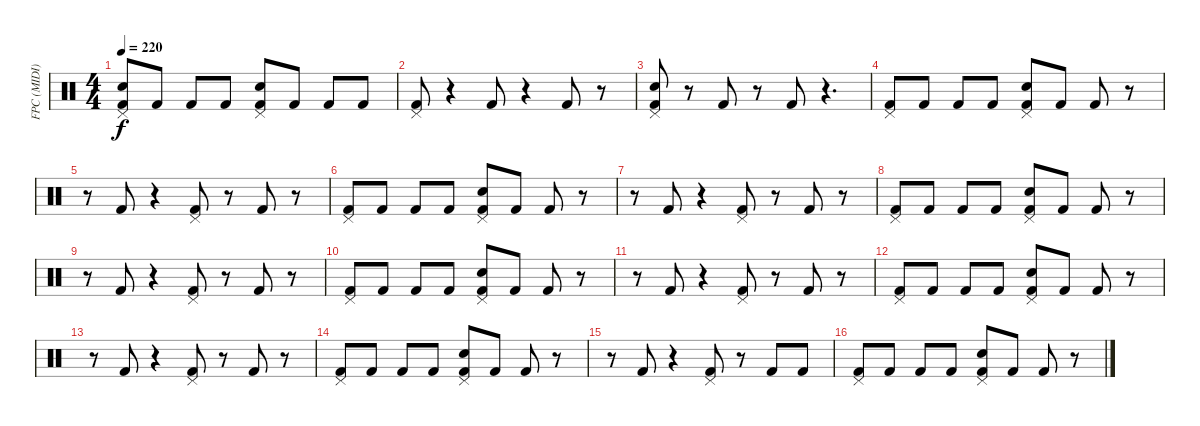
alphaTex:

\track ("FPC (MIDI)" "FPC (MIDI)") {instrument percussion}
\staff {score}
\articulation defaults
\ts (4 4)
\tempo 220
\clef neutral
\ks c
("Kick (hit) 2" "Snare (hit) 2" "Pedal Hi-Hat (hit)").8{dy f} "Kick (hit) 2".8 "Kick (hit) 2".8 "Kick (hit) 2".8 ("Snare (hit) 2" "Pedal Hi-Hat (hit)" "Kick (hit) 2").8 "Kick (hit) 2".8 "Kick (hit) 2".8 "Kick (hit) 2".8 |
("Pedal Hi-Hat (hit)" "Kick (hit) 2").8 r.4 "Kick (hit) 2".8 r.4 "Kick (hit) 2".8 r.8 |
("Snare (hit) 2" "Pedal Hi-Hat (hit)" "Kick (hit) 2").8 r.8 "Kick (hit) 2".8 r.8 "Kick (hit) 2".8 r.4{d} |
("Kick (hit) 2" "Pedal Hi-Hat (hit)").8 "Kick (hit) 2".8 "Kick (hit) 2".8 "Kick (hit) 2".8 ("Kick (hit) 2" "Pedal Hi-Hat (hit)" "Snare (hit) 2").8 "Kick (hit) 2".8 "Kick (hit) 2".8 r.8 |
r.8 "Kick (hit) 2".8 r.4 ("Pedal Hi-Hat (hit)" "Kick (hit) 2").8 r.8 "Kick (hit) 2".8 r.8 |
("Kick (hit) 2" "Pedal Hi-Hat (hit)").8 "Kick (hit) 2".8 "Kick (hit) 2".8 "Kick (hit) 2".8 ("Kick (hit) 2" "Pedal Hi-Hat (hit)" "Snare (hit) 2").8 "Kick (hit) 2".8 "Kick (hit) 2".8 r.8 |
r.8 "Kick (hit) 2".8 r.4 ("Kick (hit) 2" "Pedal Hi-Hat (hit)").8 r.8 "Kick (hit) 2".8 r.8 |
("Kick (hit) 2" "Pedal Hi-Hat (hit)").8 "Kick (hit) 2".8 "Kick (hit) 2".8 "Kick (hit) 2".8 ("Kick (hit) 2" "Pedal Hi-Hat (hit)" "Snare (hit) 2").8 "Kick (hit) 2".8 "Kick (hit) 2".8 r.8 |
r.8 "Kick (hit) 2".8 r.4 ("Pedal Hi-Hat (hit)" "Kick (hit) 2").8 r.8 "Kick (hit) 2".8 r.8 |
("Kick (hit) 2" "Pedal Hi-Hat (hit)").8 "Kick (hit) 2".8 "Kick (hit) 2".8 "Kick (hit) 2".8 ("Snare (hit) 2" "Kick (hit) 2" "Pedal Hi-Hat (hit)").8 "Kick (hit) 2".8 "Kick (hit) 2".8 r.8 |
r.8 "Kick (hit) 2".8 r.4 ("Kick (hit) 2" "Pedal Hi-Hat (hit)").8 r.8 "Kick (hit) 2".8 r.8 |
("Pedal Hi-Hat (hit)" "Kick (hit) 2").8 "Kick (hit) 2".8 "Kick (hit) 2".8 "Kick (hit) 2".8 ("Pedal Hi-Hat (hit)" "Snare (hit) 2" "Kick (hit) 2").8 "Kick (hit) 2".8 "Kick (hit) 2".8 r.8 |
r.8 "Kick (hit) 2".8 r.4 ("Kick (hit) 2" "Pedal Hi-Hat (hit)").8 r.8 "Kick (hit) 2".8 r.8 |
("Kick (hit) 2" "Pedal Hi-Hat (hit)").8 "Kick (hit) 2".8 "Kick (hit) 2".8 "Kick (hit) 2".8 ("Kick (hit) 2" "Pedal Hi-Hat (hit)" "Snare (hit) 2").8 "Kick (hit) 2".8 "Kick (hit) 2".8 r.8 |
r.8 "Kick (hit) 2".8 r.4 ("Pedal Hi-Hat (hit)" "Kick (hit) 2").8 r.8 "Kick (hit) 2".8 "Kick (hit) 2".8 |
("Kick (hit) 2" "Pedal Hi-Hat (hit)").8 "Kick (hit) 2".8 "Kick (hit) 2".8 "Kick (hit) 2".8 ("Kick (hit) 2" "Pedal Hi-Hat (hit)" "Snare (hit) 2").8 "Kick (hit) 2".8 "Kick (hit) 2".8 r.8
